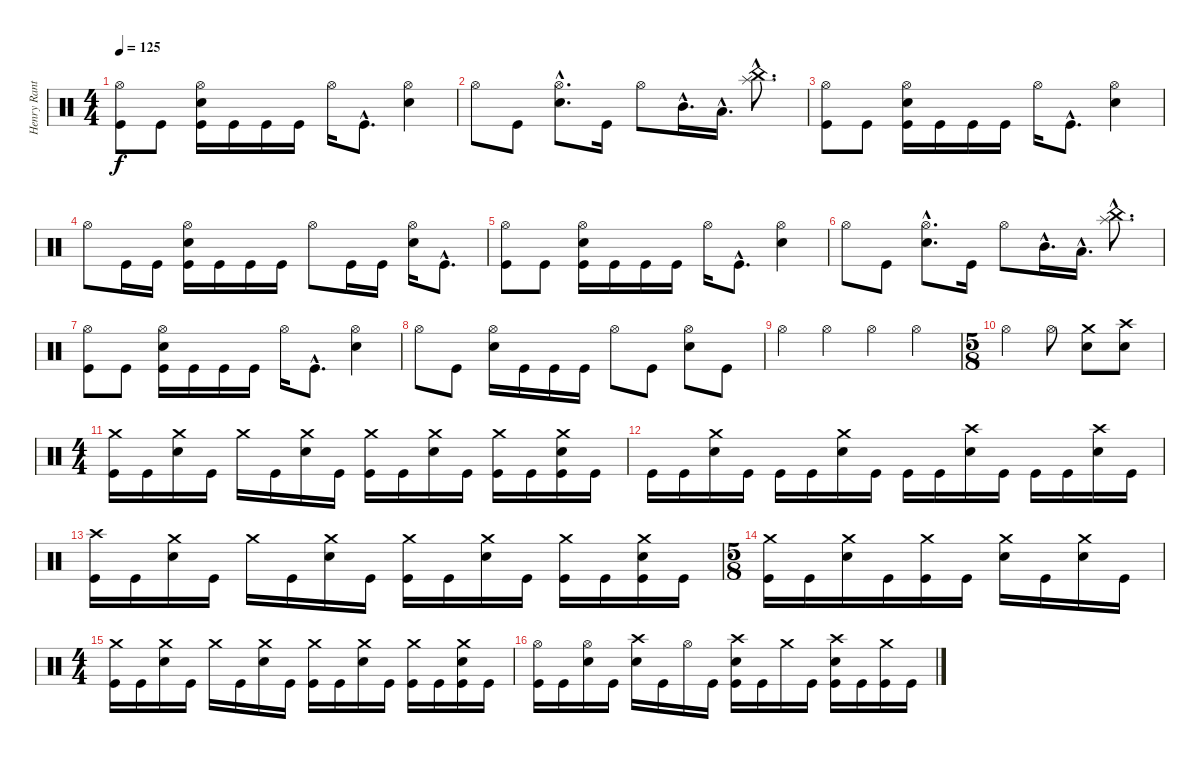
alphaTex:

\track ("Henry Ranta" "Henry Rant") {instrument percussion}
\staff {score}
\articulation defaults
\ts (4 4)
\tempo 125
\clef neutral
\ks c
("Hi-Hat (open)" "Kick (hit)").8{dy f} "Kick (hit)".8 ("Hi-Hat (open)" "Electric Snare (hit)" "Kick (hit)").16 "Kick (hit)".16 "Kick (hit)".16 "Kick (hit)".16 "Hi-Hat (open)".16 "Kick (hit)"{hac}.8{d} ("Hi-Hat (open)" "Electric Snare (hit)").4 |
"Hi-Hat (open)".8 "Kick (hit)".8 ("Hi-Hat (open)"{hac} "Electric Snare (hit)"{hac}).8{d} "Kick (hit)".16 "Hi-Hat (open)".8 "Mid Tom (hit)"{hac}.16{d} "Low Tom (hit)"{hac}.16{d} ("Splash (hit)"{hac} "China (hit)"{hac}).8{d} |
("Hi-Hat (open)" "Kick (hit)").8 "Kick (hit)".8 ("Hi-Hat (open)" "Electric Snare (hit)" "Kick (hit)").16 "Kick (hit)".16 "Kick (hit)".16 "Kick (hit)".16 "Hi-Hat (open)".16 "Kick (hit)"{hac}.8{d} ("Hi-Hat (open)" "Electric Snare (hit)").4 |
"Hi-Hat (open)".8 "Kick (hit)".16 "Kick (hit)".16 ("Hi-Hat (open)" "Electric Snare (hit)" "Kick (hit)").16 "Kick (hit)".16 "Kick (hit)".16 "Kick (hit)".16 "Hi-Hat (open)".8 "Kick (hit)".16 "Kick (hit)".16 ("Hi-Hat (open)" "Electric Snare (hit)").16 "Kick (hit)"{hac}.8{d} |
("Hi-Hat (open)" "Kick (hit)").8 "Kick (hit)".8 ("Hi-Hat (open)" "Electric Snare (hit)" "Kick (hit)").16 "Kick (hit)".16 "Kick (hit)".16 "Kick (hit)".16 "Hi-Hat (open)".16 "Kick (hit)"{hac}.8{d} ("Hi-Hat (open)" "Electric Snare (hit)").4 |
"Hi-Hat (open)".8 "Kick (hit)".8 ("Hi-Hat (open)"{hac} "Electric Snare (hit)"{hac}).8{d} "Kick (hit)".16 "Hi-Hat (open)".8 "Mid Tom (hit)"{hac}.16{d} "Low Tom (hit)"{hac}.16{d} ("Splash (hit)"{hac} "China (hit)"{hac}).8{d} |
("Hi-Hat (open)" "Kick (hit)").8 "Kick (hit)".8 ("Hi-Hat (open)" "Electric Snare (hit)" "Kick (hit)").16 "Kick (hit)".16 "Kick (hit)".16 "Kick (hit)".16 "Hi-Hat (open)".16 "Kick (hit)"{hac}.8{d} ("Hi-Hat (open)" "Electric Snare (hit)").4 |
"Hi-Hat (open)".8 "Kick (hit)".8 ("Hi-Hat (open)" "Electric Snare (hit)").16 "Kick (hit)".16 "Kick (hit)".16 "Kick (hit)".16 "Hi-Hat (open)".8 "Kick (hit)".8 ("Hi-Hat (open)" "Electric Snare (hit)").8 "Kick (hit)".8 |
"Hi-Hat (open)".4 "Hi-Hat (open)".4 "Hi-Hat (open)".4 "Hi-Hat (open)".4 |
\ts (5 8)
"Hi-Hat (open)".4 "Hi-Hat (open)".8 ("Crash medium (hit)" "Electric Snare (hit)").8 ("Crash high (hit)" "Electric Snare (hit)").8 |
\ts (4 4)
("Crash medium (hit)" "Kick (hit)").16 "Kick (hit)".16 ("Crash medium (hit)" "Electric Snare (hit)").16 "Kick (hit)".16 "Crash medium (hit)".16 "Kick (hit)".16 ("Crash medium (hit)" "Electric Snare (hit)").16 "Kick (hit)".16 ("Crash medium (hit)" "Kick (hit)").16 "Kick (hit)".16 ("Crash medium (hit)" "Electric Snare (hit)").16 "Kick (hit)".16 ("Crash medium (hit)" "Kick (hit)").16 "Kick (hit)".16 ("Crash medium (hit)" "Electric Snare (hit)" "Kick (hit)").16 "Kick (hit)".16 |
"Kick (hit)".16 "Kick (hit)".16 ("Crash medium (hit)" "Electric Snare (hit)").16 "Kick (hit)".16 "Kick (hit)".16 "Kick (hit)".16 ("Crash medium (hit)" "Electric Snare (hit)").16 "Kick (hit)".16 "Kick (hit)".16 "Kick (hit)".16 ("Crash high (hit)" "Electric Snare (hit)").16 "Kick (hit)".16 "Kick (hit)".16 "Kick (hit)".16 ("Crash high (hit)" "Electric Snare (hit)").16 "Kick (hit)".16 |
("Crash high (hit)" "Kick (hit)").16 "Kick (hit)".16 ("Crash medium (hit)" "Electric Snare (hit)").16 "Kick (hit)".16 "Crash medium (hit)".16 "Kick (hit)".16 ("Crash medium (hit)" "Electric Snare (hit)").16 "Kick (hit)".16 ("Crash medium (hit)" "Kick (hit)").16 "Kick (hit)".16 ("Crash medium (hit)" "Electric Snare (hit)").16 "Kick (hit)".16 ("Crash medium (hit)" "Kick (hit)").16 "Kick (hit)".16 ("Crash medium (hit)" "Electric Snare (hit)" "Kick (hit)").16 "Kick (hit)".16 |
\ts (5 8)
("Crash medium (hit)" "Kick (hit)").16 "Kick (hit)".16 ("Crash medium (hit)" "Electric Snare (hit)").16 "Kick (hit)".16 ("Crash medium (hit)" "Kick (hit)").16 "Kick (hit)".16 ("Crash medium (hit)" "Electric Snare (hit)").16 "Kick (hit)".16 ("Crash medium (hit)" "Electric Snare (hit)").16 "Kick (hit)".16 |
\ts (4 4)
("Crash medium (hit)" "Kick (hit)").16 "Kick (hit)".16 ("Crash medium (hit)" "Electric Snare (hit)").16 "Kick (hit)".16 "Crash medium (hit)".16 "Kick (hit)".16 ("Crash medium (hit)" "Electric Snare (hit)").16 "Kick (hit)".16 ("Crash medium (hit)" "Kick (hit)").16 "Kick (hit)".16 ("Crash medium (hit)" "Electric Snare (hit)").16 "Kick (hit)".16 ("Crash medium (hit)" "Kick (hit)").16 "Kick (hit)".16 ("Crash medium (hit)" "Electric Snare (hit)" "Kick (hit)").16 "Kick (hit)".16 |
("Hi-Hat (open)" "Kick (hit)").16 "Kick (hit)".16 ("Hi-Hat (open)" "Electric Snare (hit)").16 "Kick (hit)".16 ("Crash high (hit)" "Electric Snare (hit)").16 "Kick (hit)".16 "Hi-Hat (open)".16 "Kick (hit)".16 ("Crash high (hit)" "Electric Snare (hit)" "Kick (hit)").16 "Kick (hit)".16 "Crash medium (hit)".16 "Kick (hit)".16 ("Crash high (hit)" "Electric Snare (hit)" "Kick (hit)").16 "Kick (hit)".16 ("Crash medium (hit)" "Kick (hit)").16 "Kick (hit)".16
